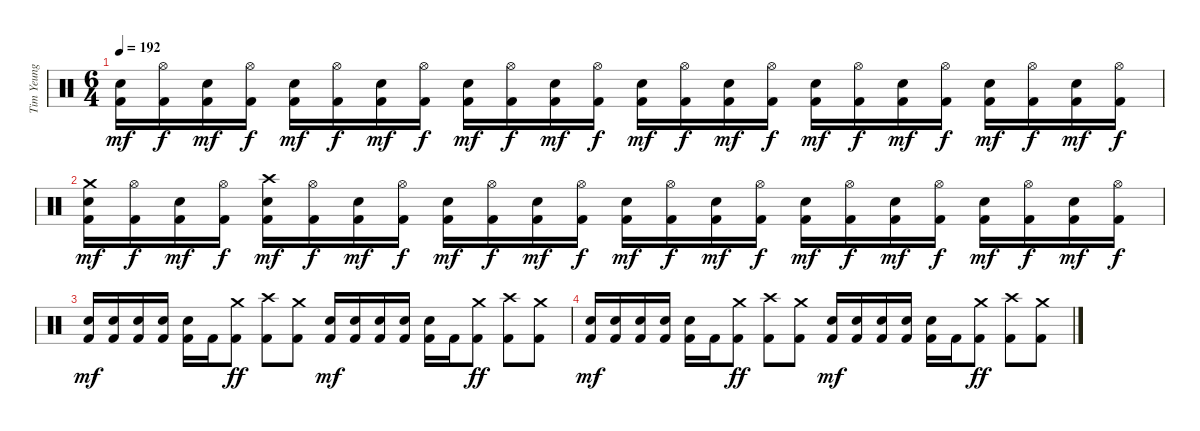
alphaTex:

\track ("Tim Yeung" "Tim Yeung") {instrument percussion}
\staff {score}
\articulation defaults
\ts (6 4)
\tempo 192
\clef neutral
\ks c
("Snare (hit) 2" "Kick (hit) 2").16{dy mf} ("Hi-Hat (open)" "Kick (hit) 2").16{dy f} ("Snare (hit) 2" "Kick (hit) 2").16{dy mf} ("Hi-Hat (open)" "Kick (hit) 2").16{dy f} ("Snare (hit) 2" "Kick (hit) 2").16{dy mf} ("Hi-Hat (open)" "Kick (hit) 2").16{dy f} ("Snare (hit) 2" "Kick (hit) 2").16{dy mf} ("Hi-Hat (open)" "Kick (hit) 2").16{dy f} ("Snare (hit) 2" "Kick (hit) 2").16{dy mf} ("Hi-Hat (open)" "Kick (hit) 2").16{dy f} ("Snare (hit) 2" "Kick (hit) 2").16{dy mf} ("Hi-Hat (open)" "Kick (hit) 2").16{dy f} ("Snare (hit) 2" "Kick (hit) 2").16{dy mf} ("Hi-Hat (open)" "Kick (hit) 2").16{dy f} ("Snare (hit) 2" "Kick (hit) 2").16{dy mf} ("Hi-Hat (open)" "Kick (hit) 2").16{dy f} ("Snare (hit) 2" "Kick (hit) 2").16{dy mf} ("Hi-Hat (open)" "Kick (hit) 2").16{dy f} ("Snare (hit) 2" "Kick (hit) 2").16{dy mf} ("Hi-Hat (open)" "Kick (hit) 2").16{dy f} ("Snare (hit) 2" "Kick (hit) 2").16{dy mf} ("Hi-Hat (open)" "Kick (hit) 2").16{dy f} ("Snare (hit) 2" "Kick (hit) 2").16{dy mf} ("Hi-Hat (open)" "Kick (hit) 2").16{dy f} |
("Crash medium (hit)" "Snare (hit) 2" "Kick (hit) 2").16{dy mf} ("Hi-Hat (open)" "Kick (hit) 2").16{dy f} ("Snare (hit) 2" "Kick (hit) 2").16{dy mf} ("Hi-Hat (open)" "Kick (hit) 2").16{dy f} ("Crash high (hit)" "Snare (hit) 2" "Kick (hit) 2").16{dy mf} ("Hi-Hat (open)" "Kick (hit) 2").16{dy f} ("Snare (hit) 2" "Kick (hit) 2").16{dy mf} ("Hi-Hat (open)" "Kick (hit) 2").16{dy f} ("Snare (hit) 2" "Kick (hit) 2").16{dy mf} ("Hi-Hat (open)" "Kick (hit) 2").16{dy f} ("Snare (hit) 2" "Kick (hit) 2").16{dy mf} ("Hi-Hat (open)" "Kick (hit) 2").16{dy f} ("Snare (hit) 2" "Kick (hit) 2").16{dy mf} ("Hi-Hat (open)" "Kick (hit) 2").16{dy f} ("Snare (hit) 2" "Kick (hit) 2").16{dy mf} ("Hi-Hat (open)" "Kick (hit) 2").16{dy f} ("Snare (hit) 2" "Kick (hit) 2").16{dy mf} ("Hi-Hat (open)" "Kick (hit) 2").16{dy f} ("Snare (hit) 2" "Kick (hit) 2").16{dy mf} ("Hi-Hat (open)" "Kick (hit) 2").16{dy f} ("Snare (hit) 2" "Kick (hit) 2").16{dy mf} ("Hi-Hat (open)" "Kick (hit) 2").16{dy f} ("Snare (hit) 2" "Kick (hit) 2").16{dy mf} ("Hi-Hat (open)" "Kick (hit) 2").16{dy f} |
("Snare (hit) 2" "Kick (hit) 2").16{dy mf} ("Snare (hit) 2" "Kick (hit) 2").16 ("Snare (hit) 2" "Kick (hit) 2").16 ("Snare (hit) 2" "Kick (hit) 2").16 ("Snare (hit) 2" "Kick (hit) 2").16 "Kick (hit) 2".16 ("Crash medium (hit)" "Kick (hit) 2").8{dy ff} ("Crash high (hit)" "Kick (hit) 2").8 ("Crash medium (hit)" "Kick (hit) 2").8 ("Snare (hit) 2" "Kick (hit) 2").16{dy mf} ("Snare (hit) 2" "Kick (hit) 2").16 ("Snare (hit) 2" "Kick (hit) 2").16 ("Snare (hit) 2" "Kick (hit) 2").16 ("Snare (hit) 2" "Kick (hit) 2").16 "Kick (hit) 2".16 ("Crash medium (hit)" "Kick (hit) 2").8{dy ff} ("Crash high (hit)" "Kick (hit) 2").8 ("Crash medium (hit)" "Kick (hit) 2").8 |
("Snare (hit) 2" "Kick (hit) 2").16{dy mf} ("Snare (hit) 2" "Kick (hit) 2").16 ("Snare (hit) 2" "Kick (hit) 2").16 ("Snare (hit) 2" "Kick (hit) 2").16 ("Snare (hit) 2" "Kick (hit) 2").16 "Kick (hit) 2".16 ("Crash medium (hit)" "Kick (hit) 2").8{dy ff} ("Crash high (hit)" "Kick (hit) 2").8 ("Crash medium (hit)" "Kick (hit) 2").8 ("Snare (hit) 2" "Kick (hit) 2").16{dy mf} ("Snare (hit) 2" "Kick (hit) 2").16 ("Snare (hit) 2" "Kick (hit) 2").16 ("Snare (hit) 2" "Kick (hit) 2").16 ("Snare (hit) 2" "Kick (hit) 2").16 "Kick (hit) 2".16 ("Crash medium (hit)" "Kick (hit) 2").8{dy ff} ("Crash high (hit)" "Kick (hit) 2").8 ("Crash medium (hit)" "Kick (hit) 2").8
